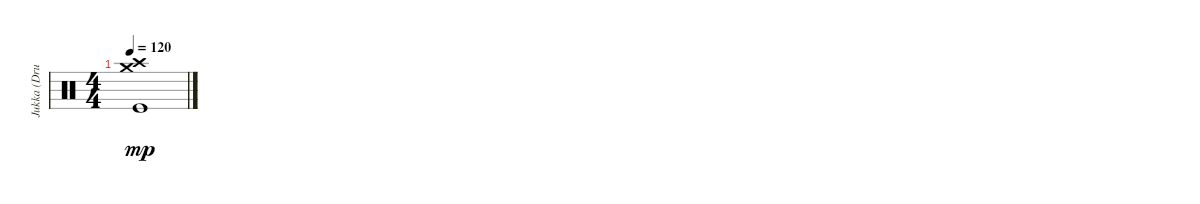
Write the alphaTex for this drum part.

\track ("Jukka (Drums)" "Jukka (Dru") {instrument percussion}
\staff {score}
\articulation defaults
\ts (4 4)
\tempo 120
\clef neutral
\ks c
("Crash medium (hit)" "Crash high (hit)" "Kick (hit)").1{dy mp}
